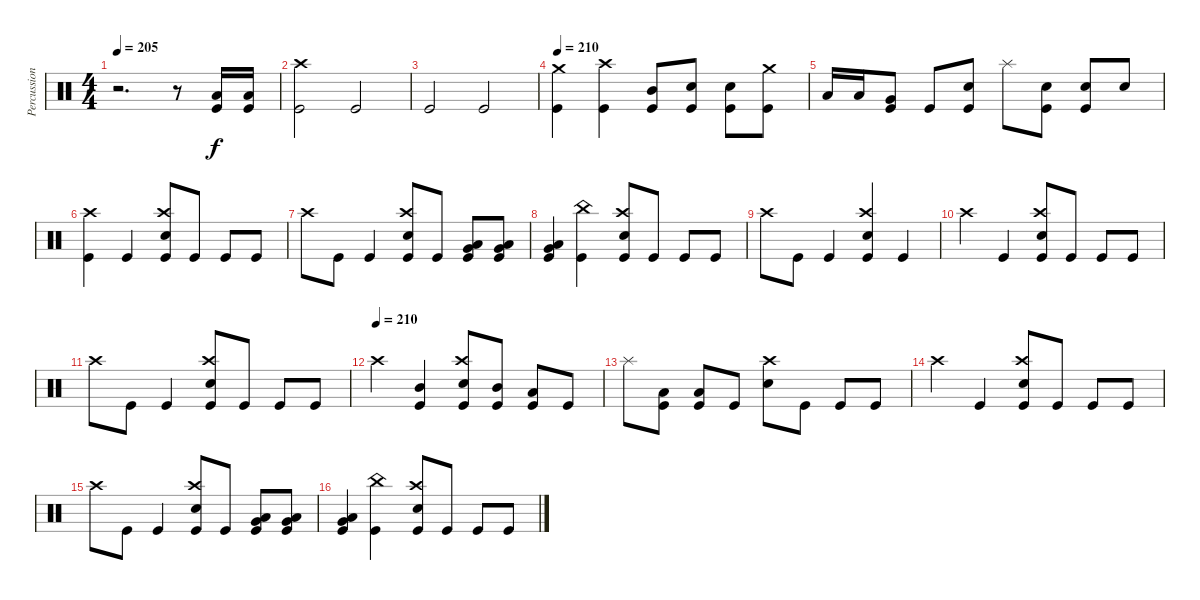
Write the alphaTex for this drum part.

\track ("Percussion" "Percussion") {instrument percussion}
\staff {score}
\articulation defaults
\ts (4 4)
\tempo 205
\clef neutral
\ks c
r.2{d dy f} r.8 ("Low Floor Tom (hit)" "Kick (hit)").16 ("Low Floor Tom (hit)" "Kick (hit)").16 |
("Crash high (hit)" "Kick (hit)").2 "Kick (hit)".2 |
"Kick (hit)".2 "Kick (hit)".2 |
\tempo 210
("Crash medium (hit)" "Kick (hit)").4 ("Crash high (hit)" "Kick (hit)").4 ("Mid Tom (hit)" "Kick (hit)").8 ("Snare (hit) 2" "Kick (hit)").8 ("Snare (hit) 2" "Kick (hit)").8 ("Crash medium (hit)" "Kick (hit)").8 |
"Low Tom (hit)".16 "Low Tom (hit)".16 ("Very Low Tom (hit)" "Kick (hit)").8 "Kick (hit)".8 ("Snare (hit) 2" "Kick (hit)").8 "Splash (hit)".8 ("Snare (hit) 2" "Kick (hit)").8 ("Snare (hit) 2" "Kick (hit)").8 "Snare (hit) 2".8 |
("Crash high (hit)" "Kick (hit)").4 "Kick (hit)".4 ("Crash high (hit)" "Snare (hit) 2" "Kick (hit)").8 "Kick (hit)".8 "Kick (hit)".8 "Kick (hit)".8 |
"Crash high (hit)".8 "Kick (hit)".8 "Kick (hit)".4 ("Crash high (hit)" "Snare (hit) 2" "Kick (hit)").8 "Kick (hit)".8 ("Very Low Tom (hit)" "Low Floor Tom (hit)" "Kick (hit)").8 ("Very Low Tom (hit)" "Low Floor Tom (hit)" "Kick (hit)").8 |
("Very Low Tom (hit)" "Low Floor Tom (hit)" "Kick (hit)").4 ("China (hit)" "Kick (hit)").4 ("Crash high (hit)" "Snare (hit) 2" "Kick (hit)").8 "Kick (hit)".8 "Kick (hit)".8 "Kick (hit)".8 |
"Crash high (hit)".8 "Kick (hit)".8 "Kick (hit)".4 ("Crash high (hit)" "Snare (hit) 2" "Kick (hit)").4 "Kick (hit)".4 |
"Crash high (hit)".4 "Kick (hit)".4 ("Crash high (hit)" "Snare (hit) 2" "Kick (hit)").8 "Kick (hit)".8 "Kick (hit)".8 "Kick (hit)".8 |
"Crash high (hit)".8 "Kick (hit)".8 "Kick (hit)".4 ("Crash high (hit)" "Snare (hit) 2" "Kick (hit)").8 "Kick (hit)".8 "Kick (hit)".8 "Kick (hit)".8 |
\tempo (210)
"Crash high (hit)".4 ("Mid Tom (hit)" "Kick (hit)").4 ("Crash high (hit)" "Snare (hit) 2" "Kick (hit)").8 ("Mid Tom (hit)" "Kick (hit)").8 ("Low Tom (hit)" "Kick (hit)").8 "Kick (hit)".8 |
"Splash (hit)".8 ("Low Tom (hit)" "Kick (hit)").8 ("Low Tom (hit)" "Kick (hit)").8 "Kick (hit)".8 ("Crash high (hit)" "Snare (hit) 2").8 "Kick (hit)".8 "Kick (hit)".8 "Kick (hit)".8 |
"Crash high (hit)".4 "Kick (hit)".4 ("Crash high (hit)" "Snare (hit) 2" "Kick (hit)").8 "Kick (hit)".8 "Kick (hit)".8 "Kick (hit)".8 |
"Crash high (hit)".8 "Kick (hit)".8 "Kick (hit)".4 ("Crash high (hit)" "Snare (hit) 2" "Kick (hit)").8 "Kick (hit)".8 ("Very Low Tom (hit)" "Low Floor Tom (hit)" "Kick (hit)").8 ("Very Low Tom (hit)" "Low Floor Tom (hit)" "Kick (hit)").8 |
("Very Low Tom (hit)" "Low Floor Tom (hit)" "Kick (hit)").4 ("China (hit)" "Kick (hit)").4 ("Crash high (hit)" "Snare (hit) 2" "Kick (hit)").8 "Kick (hit)".8 "Kick (hit)".8 "Kick (hit)".8
